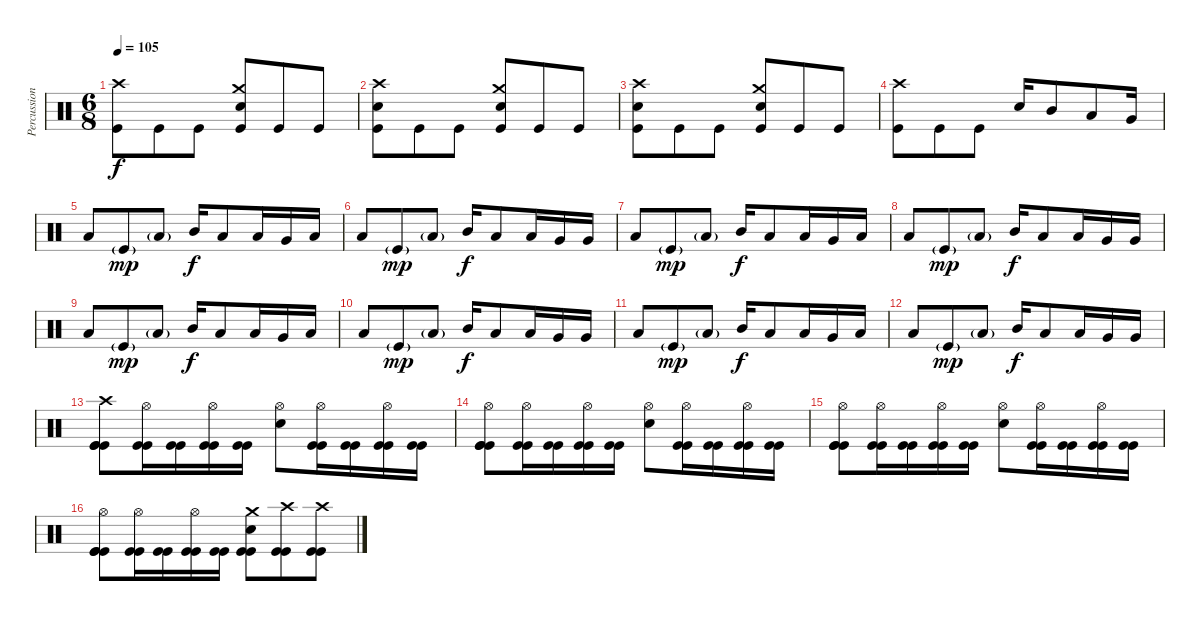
\track ("Percussions" "Percussion") {instrument percussion}
\staff {score}
\articulation defaults
\ts (6 8)
\tempo 105
\clef neutral
\ks c
("Crash high (hit)" "Kick (hit)").8{dy f} "Kick (hit)".8 "Kick (hit)".8 ("Crash medium (hit)" "Snare (hit) 2" "Kick (hit)").8 "Kick (hit)".8 "Kick (hit)".8 |
("Crash high (hit)" "Snare (hit) 2" "Kick (hit)").8 "Kick (hit)".8 "Kick (hit)".8 ("Crash medium (hit)" "Snare (hit) 2" "Kick (hit)").8 "Kick (hit)".8 "Kick (hit)".8 |
("Crash high (hit)" "Snare (hit) 2" "Kick (hit)").8 "Kick (hit)".8 "Kick (hit)".8 ("Crash medium (hit)" "Snare (hit) 2" "Kick (hit)").8 "Kick (hit)".8 "Kick (hit)".8 |
("Crash high (hit)" "Kick (hit)").8 "Kick (hit)".8 "Kick (hit)".8 "Snare (hit) 2".16 "Mid Tom (hit)".8 "Low Tom (hit)".8 "Very Low Tom (hit)".16 |
"Low Floor Tom (hit)".8 "Kick (hit)"{g}.8{dy mp} "Low Floor Tom (hit)"{g}.8 "Mid Tom (hit)".16{dy f} "Low Tom (hit)".8 "Low Tom (hit)".16 "Very Low Tom (hit)".16 "Low Tom (hit)".16 |
"Low Floor Tom (hit)".8 "Kick (hit)"{g}.8{dy mp} "Low Floor Tom (hit)"{g}.8 "Mid Tom (hit)".16{dy f} "Low Tom (hit)".8 "Low Tom (hit)".16 "Very Low Tom (hit)".16 "Very Low Tom (hit)".16 |
"Low Floor Tom (hit)".8 "Kick (hit)"{g}.8{dy mp} "Low Floor Tom (hit)"{g}.8 "Mid Tom (hit)".16{dy f} "Low Tom (hit)".8 "Low Tom (hit)".16 "Very Low Tom (hit)".16 "Low Tom (hit)".16 |
"Low Floor Tom (hit)".8 "Kick (hit)"{g}.8{dy mp} "Low Floor Tom (hit)"{g}.8 "Mid Tom (hit)".16{dy f} "Low Tom (hit)".8 "Low Tom (hit)".16 "Very Low Tom (hit)".16 "Very Low Tom (hit)".16 |
"Low Floor Tom (hit)".8 "Kick (hit)"{g}.8{dy mp} "Low Floor Tom (hit)"{g}.8 "Mid Tom (hit)".16{dy f} "Low Tom (hit)".8 "Low Tom (hit)".16 "Very Low Tom (hit)".16 "Low Tom (hit)".16 |
"Low Floor Tom (hit)".8 "Kick (hit)"{g}.8{dy mp} "Low Floor Tom (hit)"{g}.8 "Mid Tom (hit)".16{dy f} "Low Tom (hit)".8 "Low Tom (hit)".16 "Very Low Tom (hit)".16 "Very Low Tom (hit)".16 |
"Low Floor Tom (hit)".8 "Kick (hit)"{g}.8{dy mp} "Low Floor Tom (hit)"{g}.8 "Mid Tom (hit)".16{dy f} "Low Tom (hit)".8 "Low Tom (hit)".16 "Very Low Tom (hit)".16 "Low Tom (hit)".16 |
"Low Floor Tom (hit)".8 "Kick (hit)"{g}.8{dy mp} "Low Floor Tom (hit)"{g}.8 "Mid Tom (hit)".16{dy f} "Low Tom (hit)".8 "Low Tom (hit)".16 "Very Low Tom (hit)".16 "Very Low Tom (hit)".16 |
("Kick (hit)" "Kick (hit)" "Kick (hit)" "Crash high (hit)").8 ("Kick (hit)" "Kick (hit)" "Hi-Hat (open)").16 ("Kick (hit)" "Kick (hit)").16 ("Kick (hit)" "Kick (hit)" "Hi-Hat (open)").16 ("Kick (hit)" "Kick (hit)").16 ("Snare (hit) 2" "Hi-Hat (open)").8 ("Kick (hit)" "Kick (hit)" "Hi-Hat (open)").16 ("Kick (hit)" "Kick (hit)").16 ("Kick (hit)" "Kick (hit)" "Hi-Hat (open)").16 ("Kick (hit)" "Kick (hit)").16 |
("Kick (hit)" "Kick (hit)" "Kick (hit)" "Hi-Hat (open)").8 ("Kick (hit)" "Kick (hit)" "Hi-Hat (open)").16 ("Kick (hit)" "Kick (hit)").16 ("Kick (hit)" "Kick (hit)" "Hi-Hat (open)").16 ("Kick (hit)" "Kick (hit)").16 ("Snare (hit) 2" "Hi-Hat (open)").8 ("Kick (hit)" "Kick (hit)" "Hi-Hat (open)").16 ("Kick (hit)" "Kick (hit)").16 ("Kick (hit)" "Kick (hit)" "Hi-Hat (open)").16 ("Kick (hit)" "Kick (hit)").16 |
("Kick (hit)" "Kick (hit)" "Kick (hit)" "Hi-Hat (open)").8 ("Kick (hit)" "Kick (hit)" "Hi-Hat (open)").16 ("Kick (hit)" "Kick (hit)").16 ("Kick (hit)" "Kick (hit)" "Hi-Hat (open)").16 ("Kick (hit)" "Kick (hit)").16 ("Snare (hit) 2" "Hi-Hat (open)").8 ("Kick (hit)" "Kick (hit)" "Hi-Hat (open)").16 ("Kick (hit)" "Kick (hit)").16 ("Kick (hit)" "Kick (hit)" "Hi-Hat (open)").16 ("Kick (hit)" "Kick (hit)").16 |
("Kick (hit)" "Kick (hit)" "Kick (hit)" "Hi-Hat (open)").8 ("Kick (hit)" "Kick (hit)" "Hi-Hat (open)").16 ("Kick (hit)" "Kick (hit)").16 ("Kick (hit)" "Kick (hit)" "Hi-Hat (open)").16 ("Kick (hit)" "Kick (hit)").16 ("Snare (hit) 2" "Kick (hit)" "Kick (hit)" "Crash medium (hit)").8 ("Kick (hit)" "Kick (hit)" "Crash high (hit)").8 ("Kick (hit)" "Kick (hit)" "Crash high (hit)").8
